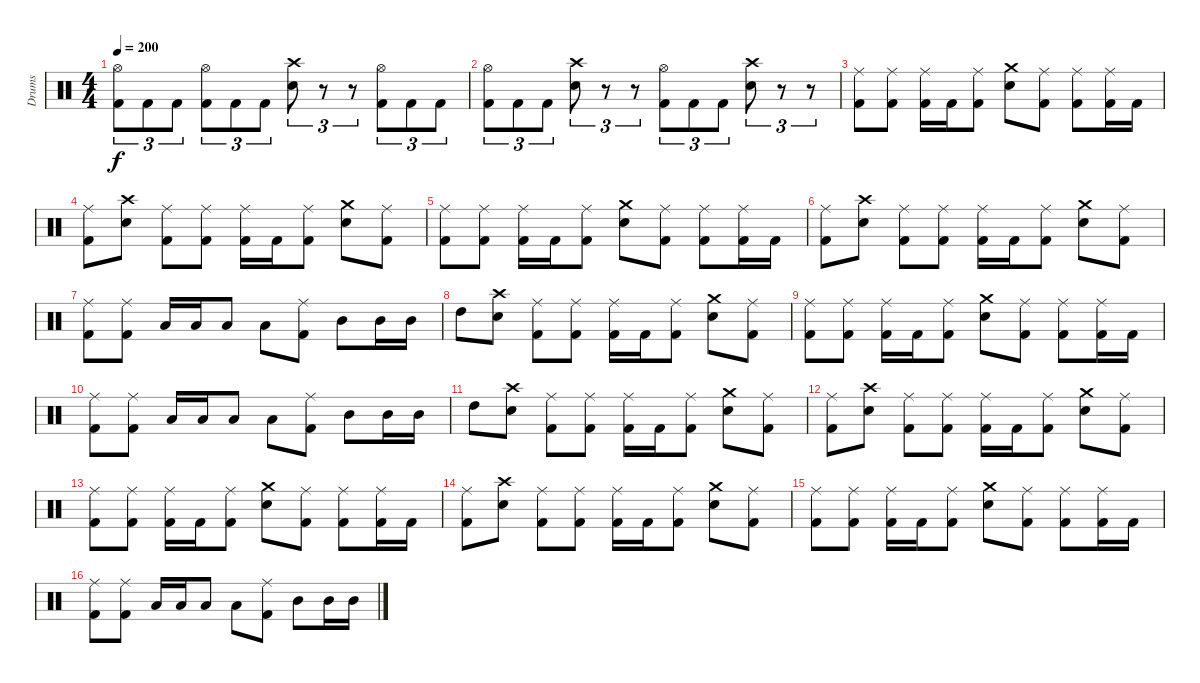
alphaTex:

\track ("Drums" "Drums") {instrument percussion}
\staff {score}
\articulation defaults
\ts (4 4)
\tempo 200
\clef neutral
\ks c
("Kick (hit) 2" "Hi-Hat (open)").8{tu (3 2) dy f} "Kick (hit) 2".8{tu (3 2)} "Kick (hit) 2".8{tu (3 2)} ("Kick (hit) 2" "Hi-Hat (open)").8{tu (3 2)} "Kick (hit) 2".8{tu (3 2)} "Kick (hit) 2".8{tu (3 2)} ("Snare (hit) 2" "Crash high (hit)").8{tu (3 2)} r.8{tu (3 2)} r.8{tu (3 2)} ("Kick (hit) 2" "Hi-Hat (open)").8{tu (3 2)} "Kick (hit) 2".8{tu (3 2)} "Kick (hit) 2".8{tu (3 2)} |
("Kick (hit) 2" "Hi-Hat (open)").8{tu (3 2)} "Kick (hit) 2".8{tu (3 2)} "Kick (hit) 2".8{tu (3 2)} ("Snare (hit) 2" "Crash high (hit)").8{tu (3 2)} r.8{tu (3 2)} r.8{tu (3 2)} ("Kick (hit) 2" "Hi-Hat (open)").8{tu (3 2)} "Kick (hit) 2".8{tu (3 2)} "Kick (hit) 2".8{tu (3 2)} ("Snare (hit) 2" "Crash high (hit)").8{tu (3 2)} r.8{tu (3 2)} r.8{tu (3 2)} |
("Kick (hit) 2" "Ride (middle)").8 ("Kick (hit) 2" "Ride (middle)").8 ("Kick (hit) 2" "Ride (middle)").16 "Kick (hit) 2".16 ("Kick (hit) 2" "Ride (middle)").8 ("Snare (hit) 2" "Crash medium (hit)").8 ("Kick (hit) 2" "Ride (middle)").8 ("Kick (hit) 2" "Ride (middle)").8 ("Kick (hit) 2" "Ride (middle)").16 "Kick (hit) 2".16 |
("Kick (hit) 2" "Ride (middle)").8 ("Snare (hit) 2" "Crash high (hit)").8 ("Kick (hit) 2" "Ride (middle)").8 ("Kick (hit) 2" "Ride (middle)").8 ("Kick (hit) 2" "Ride (middle)").16 "Kick (hit) 2".16 ("Kick (hit) 2" "Ride (middle)").8 ("Snare (hit) 2" "Crash medium (hit)").8 ("Kick (hit) 2" "Ride (middle)").8 |
("Kick (hit) 2" "Ride (middle)").8 ("Kick (hit) 2" "Ride (middle)").8 ("Kick (hit) 2" "Ride (middle)").16 "Kick (hit) 2".16 ("Kick (hit) 2" "Ride (middle)").8 ("Snare (hit) 2" "Crash medium (hit)").8 ("Kick (hit) 2" "Ride (middle)").8 ("Kick (hit) 2" "Ride (middle)").8 ("Kick (hit) 2" "Ride (middle)").16 "Kick (hit) 2".16 |
("Kick (hit) 2" "Ride (middle)").8 ("Snare (hit) 2" "Crash high (hit)").8 ("Kick (hit) 2" "Ride (middle)").8 ("Kick (hit) 2" "Ride (middle)").8 ("Kick (hit) 2" "Ride (middle)").16 "Kick (hit) 2".16 ("Kick (hit) 2" "Ride (middle)").8 ("Snare (hit) 2" "Crash medium (hit)").8 ("Kick (hit) 2" "Ride (middle)").8 |
("Kick (hit) 2" "Ride (middle)").8 ("Kick (hit) 2" "Ride (middle)").8 "Low Tom (hit)".16 "Low Tom (hit)".16 "Low Tom (hit)".8 "Low Tom (hit)".8 ("Kick (hit) 2" "Ride (middle)").8 "Mid Tom (hit)".8 "Mid Tom (hit)".16 "Mid Tom (hit)".16 |
"High Tom (hit)".8 ("Snare (hit) 2" "Crash high (hit)").8 ("Kick (hit) 2" "Ride (middle)").8 ("Kick (hit) 2" "Ride (middle)").8 ("Kick (hit) 2" "Ride (middle)").16 "Kick (hit) 2".16 ("Kick (hit) 2" "Ride (middle)").8 ("Snare (hit) 2" "Crash medium (hit)").8 ("Kick (hit) 2" "Ride (middle)").8 |
("Kick (hit) 2" "Ride (middle)").8 ("Kick (hit) 2" "Ride (middle)").8 ("Kick (hit) 2" "Ride (middle)").16 "Kick (hit) 2".16 ("Kick (hit) 2" "Ride (middle)").8 ("Snare (hit) 2" "Crash medium (hit)").8 ("Kick (hit) 2" "Ride (middle)").8 ("Kick (hit) 2" "Ride (middle)").8 ("Kick (hit) 2" "Ride (middle)").16 "Kick (hit) 2".16 |
("Kick (hit) 2" "Ride (middle)").8 ("Kick (hit) 2" "Ride (middle)").8 "Low Tom (hit)".16 "Low Tom (hit)".16 "Low Tom (hit)".8 "Low Tom (hit)".8 ("Kick (hit) 2" "Ride (middle)").8 "Mid Tom (hit)".8 "Mid Tom (hit)".16 "Mid Tom (hit)".16 |
"High Tom (hit)".8 ("Snare (hit) 2" "Crash high (hit)").8 ("Kick (hit) 2" "Ride (middle)").8 ("Kick (hit) 2" "Ride (middle)").8 ("Kick (hit) 2" "Ride (middle)").16 "Kick (hit) 2".16 ("Kick (hit) 2" "Ride (middle)").8 ("Snare (hit) 2" "Crash medium (hit)").8 ("Kick (hit) 2" "Ride (middle)").8 |
("Kick (hit) 2" "Ride (middle)").8 ("Snare (hit) 2" "Crash high (hit)").8 ("Kick (hit) 2" "Ride (middle)").8 ("Kick (hit) 2" "Ride (middle)").8 ("Kick (hit) 2" "Ride (middle)").16 "Kick (hit) 2".16 ("Kick (hit) 2" "Ride (middle)").8 ("Snare (hit) 2" "Crash medium (hit)").8 ("Kick (hit) 2" "Ride (middle)").8 |
("Kick (hit) 2" "Ride (middle)").8 ("Kick (hit) 2" "Ride (middle)").8 ("Kick (hit) 2" "Ride (middle)").16 "Kick (hit) 2".16 ("Kick (hit) 2" "Ride (middle)").8 ("Snare (hit) 2" "Crash medium (hit)").8 ("Kick (hit) 2" "Ride (middle)").8 ("Kick (hit) 2" "Ride (middle)").8 ("Kick (hit) 2" "Ride (middle)").16 "Kick (hit) 2".16 |
("Kick (hit) 2" "Ride (middle)").8 ("Snare (hit) 2" "Crash high (hit)").8 ("Kick (hit) 2" "Ride (middle)").8 ("Kick (hit) 2" "Ride (middle)").8 ("Kick (hit) 2" "Ride (middle)").16 "Kick (hit) 2".16 ("Kick (hit) 2" "Ride (middle)").8 ("Snare (hit) 2" "Crash medium (hit)").8 ("Kick (hit) 2" "Ride (middle)").8 |
("Kick (hit) 2" "Ride (middle)").8 ("Kick (hit) 2" "Ride (middle)").8 ("Kick (hit) 2" "Ride (middle)").16 "Kick (hit) 2".16 ("Kick (hit) 2" "Ride (middle)").8 ("Snare (hit) 2" "Crash medium (hit)").8 ("Kick (hit) 2" "Ride (middle)").8 ("Kick (hit) 2" "Ride (middle)").8 ("Kick (hit) 2" "Ride (middle)").16 "Kick (hit) 2".16 |
("Kick (hit) 2" "Ride (middle)").8 ("Kick (hit) 2" "Ride (middle)").8 "Low Tom (hit)".16 "Low Tom (hit)".16 "Low Tom (hit)".8 "Low Tom (hit)".8 ("Kick (hit) 2" "Ride (middle)").8 "Mid Tom (hit)".8 "Mid Tom (hit)".16 "Mid Tom (hit)".16
